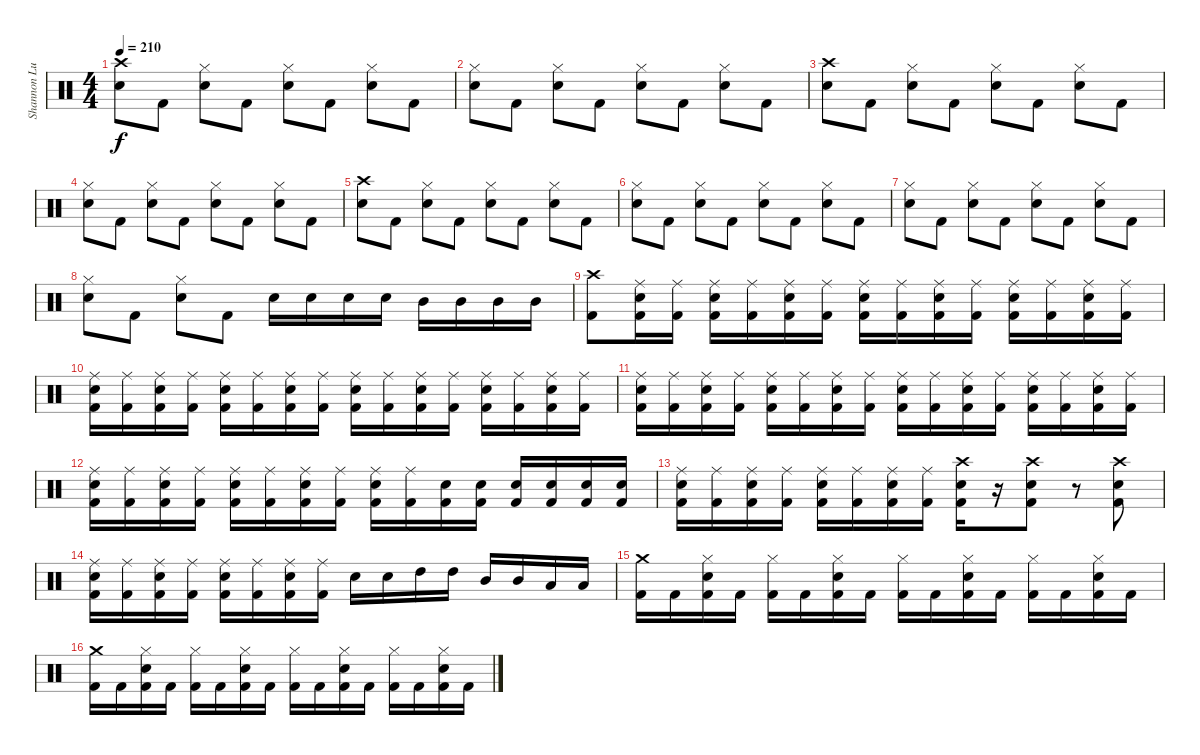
\track ("Shannon Lucas" "Shannon Lu") {instrument percussion}
\staff {score}
\articulation defaults
\ts (4 4)
\tempo 210
\clef neutral
\ks c
("Crash high (hit)" "Electric Snare (hit)").8{dy f} "Kick (hit) 2".8 ("Hi-Hat (closed)" "Electric Snare (hit)").8 "Kick (hit) 2".8 ("Hi-Hat (closed)" "Electric Snare (hit)").8 "Kick (hit) 2".8 ("Hi-Hat (closed)" "Electric Snare (hit)").8 "Kick (hit) 2".8 |
("Hi-Hat (closed)" "Electric Snare (hit)").8 "Kick (hit) 2".8 ("Hi-Hat (closed)" "Electric Snare (hit)").8 "Kick (hit) 2".8 ("Hi-Hat (closed)" "Electric Snare (hit)").8 "Kick (hit) 2".8 ("Hi-Hat (closed)" "Electric Snare (hit)").8 "Kick (hit) 2".8 |
("Crash high (hit)" "Electric Snare (hit)").8 "Kick (hit) 2".8 ("Hi-Hat (closed)" "Electric Snare (hit)").8 "Kick (hit) 2".8 ("Hi-Hat (closed)" "Electric Snare (hit)").8 "Kick (hit) 2".8 ("Hi-Hat (closed)" "Electric Snare (hit)").8 "Kick (hit) 2".8 |
("Hi-Hat (closed)" "Electric Snare (hit)").8 "Kick (hit) 2".8 ("Hi-Hat (closed)" "Electric Snare (hit)").8 "Kick (hit) 2".8 ("Hi-Hat (closed)" "Electric Snare (hit)").8 "Kick (hit) 2".8 ("Hi-Hat (closed)" "Electric Snare (hit)").8 "Kick (hit) 2".8 |
("Crash high (hit)" "Electric Snare (hit)").8 "Kick (hit) 2".8 ("Hi-Hat (closed)" "Electric Snare (hit)").8 "Kick (hit) 2".8 ("Hi-Hat (closed)" "Electric Snare (hit)").8 "Kick (hit) 2".8 ("Hi-Hat (closed)" "Electric Snare (hit)").8 "Kick (hit) 2".8 |
("Hi-Hat (closed)" "Electric Snare (hit)").8 "Kick (hit) 2".8 ("Hi-Hat (closed)" "Electric Snare (hit)").8 "Kick (hit) 2".8 ("Hi-Hat (closed)" "Electric Snare (hit)").8 "Kick (hit) 2".8 ("Hi-Hat (closed)" "Electric Snare (hit)").8 "Kick (hit) 2".8 |
("Hi-Hat (closed)" "Electric Snare (hit)").8 "Kick (hit) 2".8 ("Hi-Hat (closed)" "Electric Snare (hit)").8 "Kick (hit) 2".8 ("Hi-Hat (closed)" "Electric Snare (hit)").8 "Kick (hit) 2".8 ("Hi-Hat (closed)" "Electric Snare (hit)").8 "Kick (hit) 2".8 |
("Hi-Hat (closed)" "Electric Snare (hit)").8 "Kick (hit) 2".8 ("Hi-Hat (closed)" "Electric Snare (hit)").8 "Kick (hit) 2".8 "Electric Snare (hit)".16 "Electric Snare (hit)".16 "Electric Snare (hit)".16 "Electric Snare (hit)".16 "Mid Tom (hit)".16 "Mid Tom (hit)".16 "Mid Tom (hit)".16 "Mid Tom (hit)".16 |
("Crash high (hit)" "Kick (hit) 2").8 ("Ride (middle)" "Electric Snare (hit)" "Kick (hit) 2").16 ("Ride (middle)" "Kick (hit) 2").16 ("Ride (middle)" "Electric Snare (hit)" "Kick (hit) 2").16 ("Ride (middle)" "Kick (hit) 2").16 ("Ride (middle)" "Electric Snare (hit)" "Kick (hit) 2").16 ("Ride (middle)" "Kick (hit) 2").16 ("Ride (middle)" "Electric Snare (hit)" "Kick (hit) 2").16 ("Ride (middle)" "Kick (hit) 2").16 ("Ride (middle)" "Electric Snare (hit)" "Kick (hit) 2").16 ("Ride (middle)" "Kick (hit) 2").16 ("Ride (middle)" "Electric Snare (hit)" "Kick (hit) 2").16 ("Ride (middle)" "Kick (hit) 2").16 ("Ride (middle)" "Electric Snare (hit)" "Kick (hit) 2").16 ("Ride (middle)" "Kick (hit) 2").16 |
("Ride (middle)" "Electric Snare (hit)" "Kick (hit) 2").16 ("Ride (middle)" "Kick (hit) 2").16 ("Ride (middle)" "Electric Snare (hit)" "Kick (hit) 2").16 ("Ride (middle)" "Kick (hit) 2").16 ("Ride (middle)" "Electric Snare (hit)" "Kick (hit) 2").16 ("Ride (middle)" "Kick (hit) 2").16 ("Ride (middle)" "Electric Snare (hit)" "Kick (hit) 2").16 ("Ride (middle)" "Kick (hit) 2").16 ("Ride (middle)" "Electric Snare (hit)" "Kick (hit) 2").16 ("Ride (middle)" "Kick (hit) 2").16 ("Ride (middle)" "Electric Snare (hit)" "Kick (hit) 2").16 ("Ride (middle)" "Kick (hit) 2").16 ("Ride (middle)" "Electric Snare (hit)" "Kick (hit) 2").16 ("Ride (middle)" "Kick (hit) 2").16 ("Ride (middle)" "Electric Snare (hit)" "Kick (hit) 2").16 ("Ride (middle)" "Kick (hit) 2").16 |
("Ride (middle)" "Electric Snare (hit)" "Kick (hit) 2").16 ("Ride (middle)" "Kick (hit) 2").16 ("Ride (middle)" "Electric Snare (hit)" "Kick (hit) 2").16 ("Ride (middle)" "Kick (hit) 2").16 ("Ride (middle)" "Electric Snare (hit)" "Kick (hit) 2").16 ("Ride (middle)" "Kick (hit) 2").16 ("Ride (middle)" "Electric Snare (hit)" "Kick (hit) 2").16 ("Ride (middle)" "Kick (hit) 2").16 ("Ride (middle)" "Electric Snare (hit)" "Kick (hit) 2").16 ("Ride (middle)" "Kick (hit) 2").16 ("Ride (middle)" "Electric Snare (hit)" "Kick (hit) 2").16 ("Ride (middle)" "Kick (hit) 2").16 ("Ride (middle)" "Electric Snare (hit)" "Kick (hit) 2").16 ("Ride (middle)" "Kick (hit) 2").16 ("Ride (middle)" "Electric Snare (hit)" "Kick (hit) 2").16 ("Ride (middle)" "Kick (hit) 2").16 |
("Ride (middle)" "Electric Snare (hit)" "Kick (hit) 2").16 ("Ride (middle)" "Kick (hit) 2").16 ("Ride (middle)" "Electric Snare (hit)" "Kick (hit) 2").16 ("Ride (middle)" "Kick (hit) 2").16 ("Ride (middle)" "Electric Snare (hit)" "Kick (hit) 2").16 ("Ride (middle)" "Kick (hit) 2").16 ("Ride (middle)" "Electric Snare (hit)" "Kick (hit) 2").16 ("Ride (middle)" "Kick (hit) 2").16 ("Ride (middle)" "Electric Snare (hit)" "Kick (hit) 2").16 ("Ride (middle)" "Kick (hit) 2").16 ("Electric Snare (hit)" "Kick (hit) 2").16 ("Electric Snare (hit)" "Kick (hit) 2").16 ("Electric Snare (hit)" "Kick (hit) 2").16 ("Electric Snare (hit)" "Kick (hit) 2").16 ("Electric Snare (hit)" "Kick (hit) 2").16 ("Electric Snare (hit)" "Kick (hit) 2").16 |
("Ride (middle)" "Electric Snare (hit)" "Kick (hit) 2").16 ("Ride (middle)" "Kick (hit) 2").16 ("Ride (middle)" "Electric Snare (hit)" "Kick (hit) 2").16 ("Ride (middle)" "Kick (hit) 2").16 ("Ride (middle)" "Electric Snare (hit)" "Kick (hit) 2").16 ("Ride (middle)" "Kick (hit) 2").16 ("Ride (middle)" "Electric Snare (hit)" "Kick (hit) 2").16 ("Ride (middle)" "Kick (hit) 2").16 ("Crash high (hit)" "Electric Snare (hit)" "Kick (hit) 2").16 r.16 ("Crash high (hit)" "Electric Snare (hit)" "Kick (hit) 2").8 r.8 ("Crash high (hit)" "Electric Snare (hit)" "Kick (hit) 2").8 |
("Ride (middle)" "Electric Snare (hit)" "Kick (hit) 2").16 ("Ride (middle)" "Kick (hit) 2").16 ("Ride (middle)" "Electric Snare (hit)" "Kick (hit) 2").16 ("Ride (middle)" "Kick (hit) 2").16 ("Ride (middle)" "Electric Snare (hit)" "Kick (hit) 2").16 ("Ride (middle)" "Kick (hit) 2").16 ("Ride (middle)" "Electric Snare (hit)" "Kick (hit) 2").16 ("Ride (middle)" "Kick (hit) 2").16 "Electric Snare (hit)".16 "Electric Snare (hit)".16 "High Tom (hit)".16 "High Tom (hit)".16 "Mid Tom (hit)".16 "Mid Tom (hit)".16 "Low Tom (hit)".16 "Low Tom (hit)".16 |
("Crash medium (hit)" "Kick (hit) 2").16 "Kick (hit) 2".16 ("Hi-Hat (closed)" "Electric Snare (hit)" "Kick (hit) 2").16 "Kick (hit) 2".16 ("Hi-Hat (closed)" "Kick (hit) 2").16 "Kick (hit) 2".16 ("Hi-Hat (closed)" "Electric Snare (hit)" "Kick (hit) 2").16 "Kick (hit) 2".16 ("Hi-Hat (closed)" "Kick (hit) 2").16 "Kick (hit) 2".16 ("Hi-Hat (closed)" "Electric Snare (hit)" "Kick (hit) 2").16 "Kick (hit) 2".16 ("Hi-Hat (closed)" "Kick (hit) 2").16 "Kick (hit) 2".16 ("Hi-Hat (closed)" "Electric Snare (hit)" "Kick (hit) 2").16 "Kick (hit) 2".16 |
("Crash medium (hit)" "Kick (hit) 2").16 "Kick (hit) 2".16 ("Hi-Hat (closed)" "Electric Snare (hit)" "Kick (hit) 2").16 "Kick (hit) 2".16 ("Hi-Hat (closed)" "Kick (hit) 2").16 "Kick (hit) 2".16 ("Hi-Hat (closed)" "Electric Snare (hit)" "Kick (hit) 2").16 "Kick (hit) 2".16 ("Hi-Hat (closed)" "Kick (hit) 2").16 "Kick (hit) 2".16 ("Hi-Hat (closed)" "Electric Snare (hit)" "Kick (hit) 2").16 "Kick (hit) 2".16 ("Hi-Hat (closed)" "Kick (hit) 2").16 "Kick (hit) 2".16 ("Hi-Hat (closed)" "Electric Snare (hit)" "Kick (hit) 2").16 "Kick (hit) 2".16
